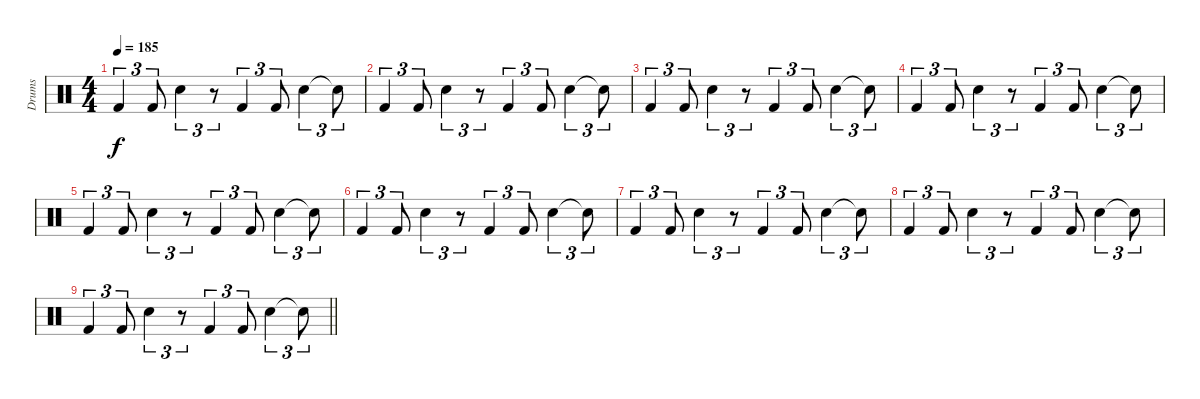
\track ("Drums" "Drums") {instrument percussion}
\staff {score}
\articulation defaults
\ts (4 4)
\tempo 185
\clef neutral
\ks c "Kick (hit) 2".4{tu (3 2) dy f} "Kick (hit) 2".8{tu (3 2)} "Snare (hit) 2".4{tu (3 2)}
r.8{tu (3 2)} "Kick (hit) 2".4{tu (3 2)} "Kick (hit) 2".8{tu (3 2)} "Snare (hit) 2".4{tu (3 2)} "Snare (hit)"{t}.8{tu (3 2)} |
"Kick (hit) 2".4{tu (3 2)} "Kick (hit) 2".8{tu (3 2)} "Snare (hit) 2".4{tu (3 2)} r.8{tu (3 2)} "Kick (hit) 2".4{tu (3 2)} "Kick (hit) 2".8{tu (3 2)} "Snare (hit) 2".4{tu (3 2)} "Snare (hit)"{t}.8{tu (3 2)} |
"Kick (hit) 2".4{tu (3 2)} "Kick (hit) 2".8{tu (3 2)} "Snare (hit) 2".4{tu (3 2)} r.8{tu (3 2)} "Kick (hit) 2".4{tu (3 2)} "Kick (hit) 2".8{tu (3 2)} "Snare (hit) 2".4{tu (3 2)} "Snare (hit)"{t}.8{tu (3 2)} |
"Kick (hit) 2".4{tu (3 2)} "Kick (hit) 2".8{tu (3 2)} "Snare (hit) 2".4{tu (3 2)} r.8{tu (3 2)} "Kick (hit) 2".4{tu (3 2)} "Kick (hit) 2".8{tu (3 2)} "Snare (hit) 2".4{tu (3 2)} "Snare (hit)"{t}.8{tu (3 2)} |
"Kick (hit) 2".4{tu (3 2)} "Kick (hit) 2".8{tu (3 2)} "Snare (hit) 2".4{tu (3 2)} r.8{tu (3 2)} "Kick (hit) 2".4{tu (3 2)} "Kick (hit) 2".8{tu (3 2)} "Snare (hit) 2".4{tu (3 2)} "Snare (hit)"{t}.8{tu (3 2)} |
"Kick (hit) 2".4{tu (3 2)} "Kick (hit) 2".8{tu (3 2)} "Snare (hit) 2".4{tu (3 2)} r.8{tu (3 2)} "Kick (hit) 2".4{tu (3 2)} "Kick (hit) 2".8{tu (3 2)} "Snare (hit) 2".4{tu (3 2)} "Snare (hit)"{t}.8{tu (3 2)} |
"Kick (hit) 2".4{tu (3 2)} "Kick (hit) 2".8{tu (3 2)} "Snare (hit) 2".4{tu (3 2)} r.8{tu (3 2)} "Kick (hit) 2".4{tu (3 2)} "Kick (hit) 2".8{tu (3 2)} "Snare (hit) 2".4{tu (3 2)} "Snare (hit)"{t}.8{tu (3 2)} |
"Kick (hit) 2".4{tu (3 2)} "Kick (hit) 2".8{tu (3 2)} "Snare (hit) 2".4{tu (3 2)} r.8{tu (3 2)} "Kick (hit) 2".4{tu (3 2)} "Kick (hit) 2".8{tu (3 2)} "Snare (hit) 2".4{tu (3 2)} "Snare (hit)"{t}.8{tu (3 2)} |
\barLineRight lightlight "Kick (hit) 2".4{tu (3 2)} "Kick (hit) 2".8{tu (3 2)} "Snare (hit) 2".4{tu (3 2)}
r.8{tu (3 2)} "Kick (hit) 2".4{tu (3 2)} "Kick (hit) 2".8{tu (3 2)} "Snare (hit) 2".4{tu (3 2)} "Snare (hit)"{t}.8{tu (3 2)}
